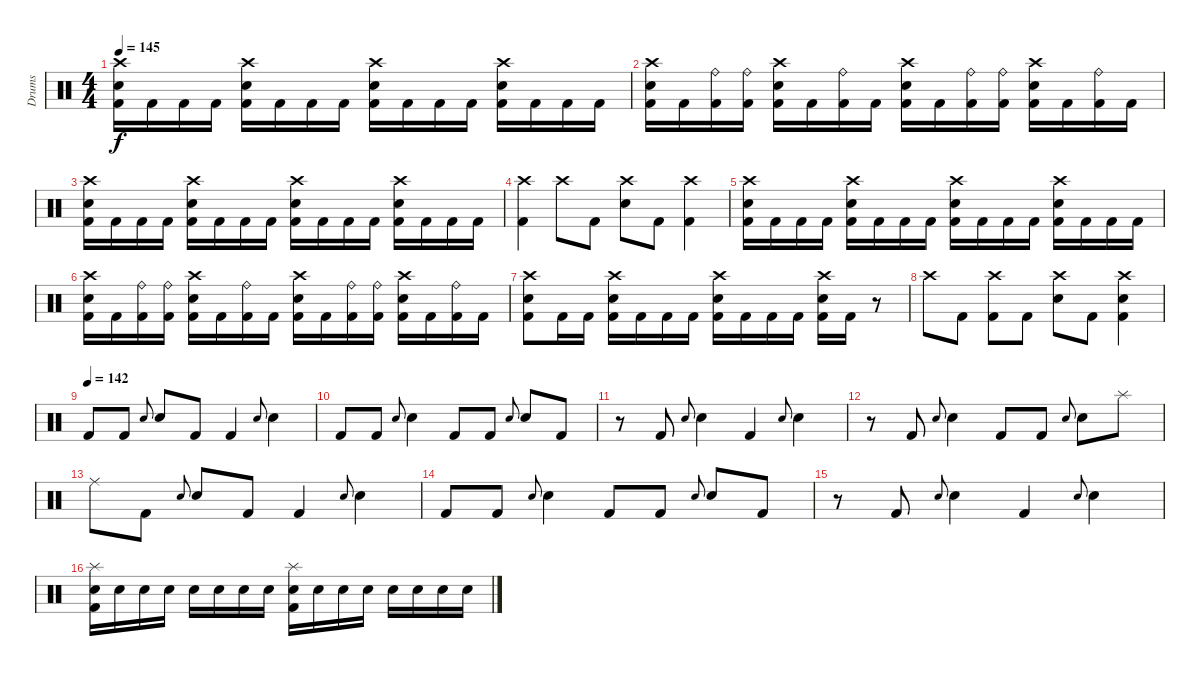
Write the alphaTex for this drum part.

\track ("Drums" "Drums") {instrument percussion}
\staff {score}
\articulation defaults
\ts (4 4)
\tempo 145
\clef neutral
\ks c
("Crash high (hit)" "Electric Snare (hit)" "Kick (hit) 2").16{dy f} "Kick (hit) 2".16 "Kick (hit) 2".16 "Kick (hit) 2".16 ("Crash high (hit)" "Electric Snare (hit)" "Kick (hit) 2").16 "Kick (hit) 2".16 "Kick (hit) 2".16 "Kick (hit) 2".16 ("Crash high (hit)" "Electric Snare (hit)" "Kick (hit) 2").16 "Kick (hit) 2".16 "Kick (hit) 2".16 "Kick (hit) 2".16 ("Crash high (hit)" "Electric Snare (hit)" "Kick (hit) 2").16 "Kick (hit) 2".16 "Kick (hit) 2".16 "Kick (hit) 2".16 |
("Crash high (hit)" "Electric Snare (hit)" "Kick (hit) 2").16 "Kick (hit) 2".16 ("Ride (bell)" "Kick (hit) 2").16 ("Ride (bell)" "Kick (hit) 2").16 ("Crash high (hit)" "Electric Snare (hit)" "Kick (hit) 2").16 "Kick (hit) 2".16 ("Ride (bell)" "Kick (hit) 2").16 "Kick (hit) 2".16 ("Crash high (hit)" "Electric Snare (hit)" "Kick (hit) 2").16 "Kick (hit) 2".16 ("Ride (bell)" "Kick (hit) 2").16 ("Ride (bell)" "Kick (hit) 2").16 ("Crash high (hit)" "Electric Snare (hit)" "Kick (hit) 2").16 "Kick (hit) 2".16 ("Ride (bell)" "Kick (hit) 2").16 "Kick (hit) 2".16 |
("Crash high (hit)" "Electric Snare (hit)" "Kick (hit) 2").16 "Kick (hit) 2".16 "Kick (hit) 2".16 "Kick (hit) 2".16 ("Crash high (hit)" "Electric Snare (hit)" "Kick (hit) 2").16 "Kick (hit) 2".16 "Kick (hit) 2".16 "Kick (hit) 2".16 ("Crash high (hit)" "Electric Snare (hit)" "Kick (hit) 2").16 "Kick (hit) 2".16 "Kick (hit) 2".16 "Kick (hit) 2".16 ("Crash high (hit)" "Electric Snare (hit)" "Kick (hit) 2").16 "Kick (hit) 2".16 "Kick (hit) 2".16 "Kick (hit) 2".16 |
("Crash high (hit)" "Kick (hit) 2").4 "Crash high (hit)".8 "Kick (hit) 2".8 ("Crash high (hit)" "Electric Snare (hit)").8 "Kick (hit) 2".8 ("Crash high (hit)" "Kick (hit) 2").4 |
("Crash high (hit)" "Electric Snare (hit)" "Kick (hit) 2").16 "Kick (hit) 2".16 "Kick (hit) 2".16 "Kick (hit) 2".16 ("Crash high (hit)" "Electric Snare (hit)" "Kick (hit) 2").16 "Kick (hit) 2".16 "Kick (hit) 2".16 "Kick (hit) 2".16 ("Crash high (hit)" "Electric Snare (hit)" "Kick (hit) 2").16 "Kick (hit) 2".16 "Kick (hit) 2".16 "Kick (hit) 2".16 ("Crash high (hit)" "Electric Snare (hit)" "Kick (hit) 2").16 "Kick (hit) 2".16 "Kick (hit) 2".16 "Kick (hit) 2".16 |
("Crash high (hit)" "Electric Snare (hit)" "Kick (hit) 2").16 "Kick (hit) 2".16 ("Ride (bell)" "Kick (hit) 2").16 ("Ride (bell)" "Kick (hit) 2").16 ("Crash high (hit)" "Electric Snare (hit)" "Kick (hit) 2").16 "Kick (hit) 2".16 ("Ride (bell)" "Kick (hit) 2").16 "Kick (hit) 2".16 ("Crash high (hit)" "Electric Snare (hit)" "Kick (hit) 2").16 "Kick (hit) 2".16 ("Ride (bell)" "Kick (hit) 2").16 ("Ride (bell)" "Kick (hit) 2").16 ("Crash high (hit)" "Electric Snare (hit)" "Kick (hit) 2").16 "Kick (hit) 2".16 ("Ride (bell)" "Kick (hit) 2").16 "Kick (hit) 2".16 |
("Crash high (hit)" "Electric Snare (hit)" "Kick (hit) 2").8 "Kick (hit) 2".16 "Kick (hit) 2".16 ("Crash high (hit)" "Electric Snare (hit)" "Kick (hit) 2").16 "Kick (hit) 2".16 "Kick (hit) 2".16 "Kick (hit) 2".16 ("Crash high (hit)" "Electric Snare (hit)" "Kick (hit) 2").16 "Kick (hit) 2".16 "Kick (hit) 2".16 "Kick (hit) 2".16 ("Crash high (hit)" "Electric Snare (hit)" "Kick (hit) 2").16 "Kick (hit) 2".16 r.8 |
"Crash high (hit)".8 "Kick (hit) 2".8 ("Crash high (hit)" "Kick (hit) 2").8 "Kick (hit) 2".8 ("Crash high (hit)" "Electric Snare (hit)").8 "Kick (hit) 2".8 ("Crash high (hit)" "Electric Snare (hit)" "Kick (hit) 2").4 |
\tempo (142)
"Kick (hit) 2".8 "Kick (hit) 2".8 "Electric Snare (hit)".8{gr onbeat} "Electric Snare (hit)".8 "Kick (hit) 2".8 "Kick (hit) 2".4 "Electric Snare (hit)".8{gr onbeat} "Electric Snare (hit)".4 |
"Kick (hit) 2".8 "Kick (hit) 2".8 "Electric Snare (hit)".8{gr onbeat} "Electric Snare (hit)".4 "Kick (hit) 2".8 "Kick (hit) 2".8 "Electric Snare (hit)".8{gr onbeat} "Electric Snare (hit)".8 "Kick (hit) 2".8 |
r.8 "Kick (hit) 2".8 "Electric Snare (hit)".8{gr onbeat} "Electric Snare (hit)".4 "Kick (hit) 2".4 "Electric Snare (hit)".8{gr onbeat} "Electric Snare (hit)".4 |
r.8 "Kick (hit) 2".8 "Electric Snare (hit)".8{gr onbeat} "Electric Snare (hit)".4 "Kick (hit) 2".8 "Kick (hit) 2".8 "Electric Snare (hit)".8{gr onbeat} "Electric Snare (hit)".8 "Splash (hit)".8 |
"Ride (middle)".8 "Kick (hit) 2".8 "Electric Snare (hit)".8{gr onbeat} "Electric Snare (hit)".8 "Kick (hit) 2".8 "Kick (hit) 2".4 "Electric Snare (hit)".8{gr onbeat} "Electric Snare (hit)".4 |
"Kick (hit) 2".8 "Kick (hit) 2".8 "Electric Snare (hit)".8{gr onbeat} "Electric Snare (hit)".4 "Kick (hit) 2".8 "Kick (hit) 2".8 "Electric Snare (hit)".8{gr onbeat} "Electric Snare (hit)".8 "Kick (hit) 2".8 |
r.8 "Kick (hit) 2".8 "Electric Snare (hit)".8{gr onbeat} "Electric Snare (hit)".4 "Kick (hit) 2".4 "Electric Snare (hit)".8{gr onbeat} "Electric Snare (hit)".4 |
("Splash (hit)" "Electric Snare (hit)" "Kick (hit) 2").16 "Electric Snare (hit)".16 "Electric Snare (hit)".16 "Electric Snare (hit)".16 "Electric Snare (hit)".16 "Electric Snare (hit)".16 "Electric Snare (hit)".16 "Electric Snare (hit)".16 ("Splash (hit)" "Electric Snare (hit)" "Kick (hit) 2").16 "Electric Snare (hit)".16 "Electric Snare (hit)".16 "Electric Snare (hit)".16 "Electric Snare (hit)".16 "Electric Snare (hit)".16 "Electric Snare (hit)".16 "Electric Snare (hit)".16
